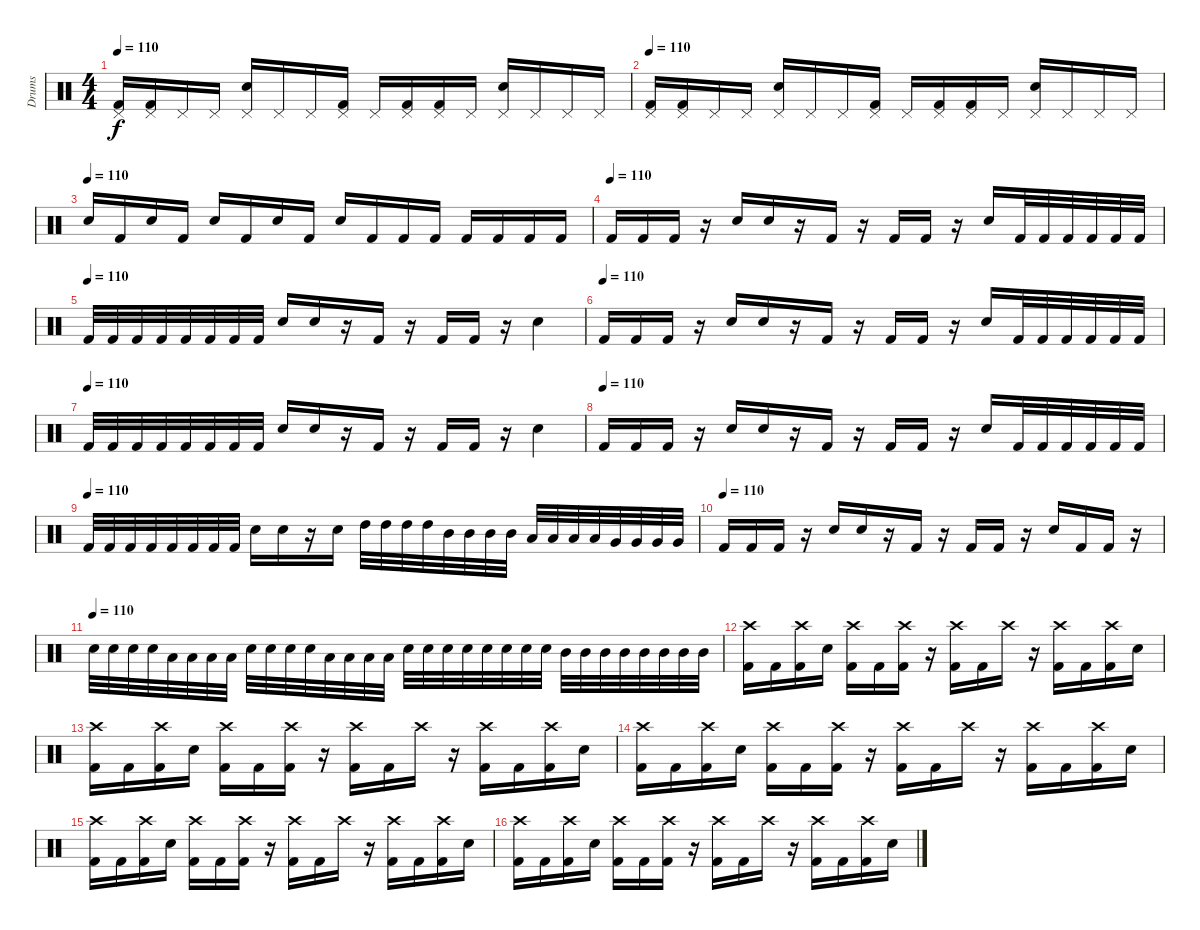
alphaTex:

\track ("Drums" "Drums") {instrument percussion}
\staff {score}
\articulation defaults
\ts (4 4)
\tempo 110
\clef neutral
\ks c
("Pedal Hi-Hat (hit)" "Kick (hit) 2").16{dy f} ("Pedal Hi-Hat (hit)" "Kick (hit) 2").16 "Pedal Hi-Hat (hit)".16 "Pedal Hi-Hat (hit)".16 ("Pedal Hi-Hat (hit)" "Snare (hit) 2").16 "Pedal Hi-Hat (hit)".16 "Pedal Hi-Hat (hit)".16 ("Pedal Hi-Hat (hit)" "Kick (hit) 2").16 "Pedal Hi-Hat (hit)".16 ("Pedal Hi-Hat (hit)" "Kick (hit) 2").16 ("Pedal Hi-Hat (hit)" "Kick (hit) 2").16 "Pedal Hi-Hat (hit)".16 ("Pedal Hi-Hat (hit)" "Snare (hit) 2").16 "Pedal Hi-Hat (hit)".16 "Pedal Hi-Hat (hit)".16 "Pedal Hi-Hat (hit)".16 |
\tempo 110
("Pedal Hi-Hat (hit)" "Kick (hit) 2").16 ("Pedal Hi-Hat (hit)" "Kick (hit) 2").16 "Pedal Hi-Hat (hit)".16 "Pedal Hi-Hat (hit)".16 ("Pedal Hi-Hat (hit)" "Snare (hit) 2").16 "Pedal Hi-Hat (hit)".16 "Pedal Hi-Hat (hit)".16 ("Pedal Hi-Hat (hit)" "Kick (hit) 2").16 "Pedal Hi-Hat (hit)".16 ("Pedal Hi-Hat (hit)" "Kick (hit) 2").16 ("Pedal Hi-Hat (hit)" "Kick (hit) 2").16 "Pedal Hi-Hat (hit)".16 ("Pedal Hi-Hat (hit)" "Snare (hit) 2").16 "Pedal Hi-Hat (hit)".16 "Pedal Hi-Hat (hit)".16 "Pedal Hi-Hat (hit)".16 |
\tempo (110)
"Snare (hit) 2".16 "Kick (hit) 2".16 "Snare (hit) 2".16 "Kick (hit) 2".16 "Snare (hit) 2".16 "Kick (hit) 2".16 "Snare (hit) 2".16 "Kick (hit) 2".16 "Snare (hit) 2".16 "Kick (hit) 2".16 "Kick (hit) 2".16 "Kick (hit) 2".16 "Kick (hit) 2".16 "Kick (hit) 2".16 "Kick (hit) 2".16 "Kick (hit) 2".16 |
\tempo (110)
"Kick (hit) 2".16 "Kick (hit) 2".16 "Kick (hit) 2".16 r.16 "Snare (hit) 2".16 "Snare (hit) 2".16 r.16 "Kick (hit) 2".16 r.16 "Kick (hit) 2".16 "Kick (hit) 2".16 r.16 "Snare (hit) 2".16 "Kick (hit) 2".32 "Kick (hit) 2".32 "Kick (hit) 2".32 "Kick (hit) 2".32 "Kick (hit) 2".32 "Kick (hit) 2".32 |
\tempo (110)
"Kick (hit) 2".32 "Kick (hit) 2".32 "Kick (hit) 2".32 "Kick (hit) 2".32 "Kick (hit) 2".32 "Kick (hit) 2".32 "Kick (hit) 2".32 "Kick (hit) 2".32 "Snare (hit) 2".16 "Snare (hit) 2".16 r.16 "Kick (hit) 2".16 r.16 "Kick (hit) 2".16 "Kick (hit) 2".16 r.16 "Snare (hit) 2".4 |
\tempo (110)
"Kick (hit) 2".16 "Kick (hit) 2".16 "Kick (hit) 2".16 r.16 "Snare (hit) 2".16 "Snare (hit) 2".16 r.16 "Kick (hit) 2".16 r.16 "Kick (hit) 2".16 "Kick (hit) 2".16 r.16 "Snare (hit) 2".16 "Kick (hit) 2".32 "Kick (hit) 2".32 "Kick (hit) 2".32 "Kick (hit) 2".32 "Kick (hit) 2".32 "Kick (hit) 2".32 |
\tempo (110)
"Kick (hit) 2".32 "Kick (hit) 2".32 "Kick (hit) 2".32 "Kick (hit) 2".32 "Kick (hit) 2".32 "Kick (hit) 2".32 "Kick (hit) 2".32 "Kick (hit) 2".32 "Snare (hit) 2".16 "Snare (hit) 2".16 r.16 "Kick (hit) 2".16 r.16 "Kick (hit) 2".16 "Kick (hit) 2".16 r.16 "Snare (hit) 2".4 |
\tempo (110)
"Kick (hit) 2".16 "Kick (hit) 2".16 "Kick (hit) 2".16 r.16 "Snare (hit) 2".16 "Snare (hit) 2".16 r.16 "Kick (hit) 2".16 r.16 "Kick (hit) 2".16 "Kick (hit) 2".16 r.16 "Snare (hit) 2".16 "Kick (hit) 2".32 "Kick (hit) 2".32 "Kick (hit) 2".32 "Kick (hit) 2".32 "Kick (hit) 2".32 "Kick (hit) 2".32 |
\tempo (110)
"Kick (hit) 2".32 "Kick (hit) 2".32 "Kick (hit) 2".32 "Kick (hit) 2".32 "Kick (hit) 2".32 "Kick (hit) 2".32 "Kick (hit) 2".32 "Kick (hit) 2".32 "Snare (hit) 2".16 "Snare (hit) 2".16 r.16 "Snare (hit) 2".16 "High Tom (hit)".32 "High Tom (hit)".32 "High Tom (hit)".32 "High Tom (hit)".32 "Mid Tom (hit)".32 "Mid Tom (hit)".32 "Mid Tom (hit)".32 "Mid Tom (hit)".32 "Low Tom (hit)".32 "Low Tom (hit)".32 "Low Tom (hit)".32 "Low Tom (hit)".32 "Very Low Tom (hit)".32 "Very Low Tom (hit)".32 "Very Low Tom (hit)".32 "Very Low Tom (hit)".32 |
\tempo (110)
"Kick (hit) 2".16 "Kick (hit) 2".16 "Kick (hit) 2".16 r.16 "Snare (hit) 2".16 "Snare (hit) 2".16 r.16 "Kick (hit) 2".16 r.16 "Kick (hit) 2".16 "Kick (hit) 2".16 r.16 "Snare (hit) 2".16 "Kick (hit) 2".16 "Kick (hit) 2".16 r.16 |
\tempo (110)
"Snare (hit) 2".32 "Snare (hit) 2".32 "Snare (hit) 2".32 "Snare (hit) 2".32 "Low Tom (hit)".32 "Low Tom (hit)".32 "Low Tom (hit)".32 "Low Tom (hit)".32 "Snare (hit) 2".32 "Snare (hit) 2".32 "Snare (hit) 2".32 "Snare (hit) 2".32 "Low Tom (hit)".32 "Low Tom (hit)".32 "Low Tom (hit)".32 "Low Tom (hit)".32 "Snare (hit) 2".32 "Snare (hit) 2".32 "Snare (hit) 2".32 "Snare (hit) 2".32 "Snare (hit) 2".32 "Snare (hit) 2".32 "Snare (hit) 2".32 "Snare (hit) 2".32 "Mid Tom (hit)".32 "Mid Tom (hit)".32 "Mid Tom (hit)".32 "Mid Tom (hit)".32 "Mid Tom (hit)".32 "Mid Tom (hit)".32 "Mid Tom (hit)".32 "Mid Tom (hit)".32 |
("Crash high (hit)" "Kick (hit) 2").16 "Kick (hit) 2".16 ("Crash high (hit)" "Kick (hit) 2").16 "Snare (hit) 2".16 ("Crash high (hit)" "Kick (hit) 2").16 "Kick (hit) 2".16 ("Crash high (hit)" "Kick (hit) 2").16 r.16 ("Crash high (hit)" "Kick (hit) 2").16 "Kick (hit) 2".16 "Crash high (hit)".16 r.16 ("Crash high (hit)" "Kick (hit) 2").16 "Kick (hit) 2".16 ("Crash high (hit)" "Kick (hit) 2").16 "Snare (hit) 2".16 |
("Crash high (hit)" "Kick (hit) 2").16 "Kick (hit) 2".16 ("Crash high (hit)" "Kick (hit) 2").16 "Snare (hit) 2".16 ("Crash high (hit)" "Kick (hit) 2").16 "Kick (hit) 2".16 ("Crash high (hit)" "Kick (hit) 2").16 r.16 ("Crash high (hit)" "Kick (hit) 2").16 "Kick (hit) 2".16 "Crash high (hit)".16 r.16 ("Crash high (hit)" "Kick (hit) 2").16 "Kick (hit) 2".16 ("Crash high (hit)" "Kick (hit) 2").16 "Snare (hit) 2".16 |
("Crash high (hit)" "Kick (hit) 2").16 "Kick (hit) 2".16 ("Crash high (hit)" "Kick (hit) 2").16 "Snare (hit) 2".16 ("Crash high (hit)" "Kick (hit) 2").16 "Kick (hit) 2".16 ("Crash high (hit)" "Kick (hit) 2").16 r.16 ("Crash high (hit)" "Kick (hit) 2").16 "Kick (hit) 2".16 "Crash high (hit)".16 r.16 ("Crash high (hit)" "Kick (hit) 2").16 "Kick (hit) 2".16 ("Crash high (hit)" "Kick (hit) 2").16 "Snare (hit) 2".16 |
("Crash high (hit)" "Kick (hit) 2").16 "Kick (hit) 2".16 ("Crash high (hit)" "Kick (hit) 2").16 "Snare (hit) 2".16 ("Crash high (hit)" "Kick (hit) 2").16 "Kick (hit) 2".16 ("Crash high (hit)" "Kick (hit) 2").16 r.16 ("Crash high (hit)" "Kick (hit) 2").16 "Kick (hit) 2".16 "Crash high (hit)".16 r.16 ("Crash high (hit)" "Kick (hit) 2").16 "Kick (hit) 2".16 ("Crash high (hit)" "Kick (hit) 2").16 "Snare (hit) 2".16 |
("Crash high (hit)" "Kick (hit) 2").16 "Kick (hit) 2".16 ("Crash high (hit)" "Kick (hit) 2").16 "Snare (hit) 2".16 ("Crash high (hit)" "Kick (hit) 2").16 "Kick (hit) 2".16 ("Crash high (hit)" "Kick (hit) 2").16 r.16 ("Crash high (hit)" "Kick (hit) 2").16 "Kick (hit) 2".16 "Crash high (hit)".16 r.16 ("Crash high (hit)" "Kick (hit) 2").16 "Kick (hit) 2".16 ("Crash high (hit)" "Kick (hit) 2").16 "Snare (hit) 2".16
